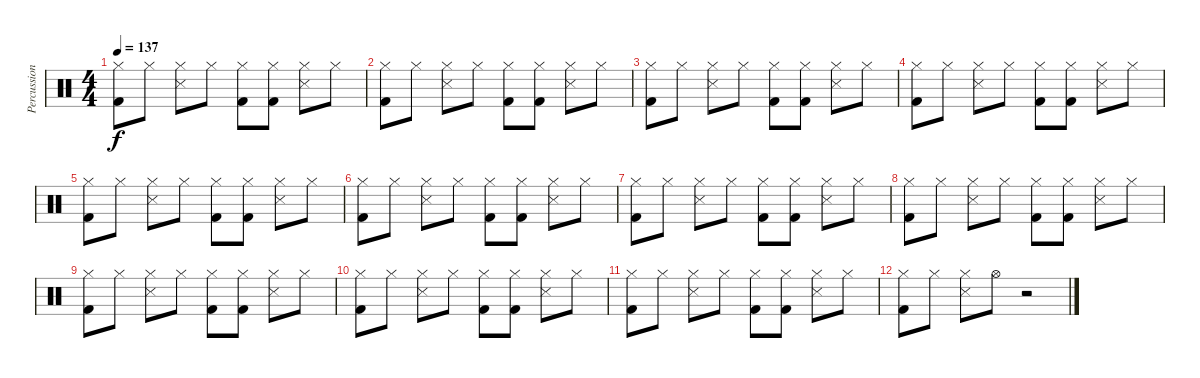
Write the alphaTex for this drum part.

\track ("Percussions" "Percussion") {instrument percussion}
\staff {score}
\articulation defaults
\ts (4 4)
\tempo 137
\clef neutral
\ks c
("Hi-Hat (closed)" "Kick (hit) 2").8{dy f} "Hi-Hat (closed)".8 ("Hi-Hat (closed)" "Snare (side stick) 3").8 "Hi-Hat (closed)".8 ("Hi-Hat (closed)" "Kick (hit) 2").8 ("Hi-Hat (closed)" "Kick (hit) 2").8 ("Hi-Hat (closed)" "Snare (side stick) 3").8 "Hi-Hat (closed)".8 |
("Hi-Hat (closed)" "Kick (hit) 2").8 "Hi-Hat (closed)".8 ("Hi-Hat (closed)" "Snare (side stick) 3").8 "Hi-Hat (closed)".8 ("Hi-Hat (closed)" "Kick (hit) 2").8 ("Hi-Hat (closed)" "Kick (hit) 2").8 ("Hi-Hat (closed)" "Snare (side stick) 3").8 "Hi-Hat (closed)".8 |
("Hi-Hat (closed)" "Kick (hit) 2").8 "Hi-Hat (closed)".8 ("Hi-Hat (closed)" "Snare (side stick) 3").8 "Hi-Hat (closed)".8 ("Hi-Hat (closed)" "Kick (hit) 2").8 ("Hi-Hat (closed)" "Kick (hit) 2").8 ("Hi-Hat (closed)" "Snare (side stick) 3").8 "Hi-Hat (closed)".8 |
("Hi-Hat (closed)" "Kick (hit) 2").8 "Hi-Hat (closed)".8 ("Hi-Hat (closed)" "Snare (side stick) 3").8 "Hi-Hat (closed)".8 ("Hi-Hat (closed)" "Kick (hit) 2").8 ("Hi-Hat (closed)" "Kick (hit) 2").8 ("Hi-Hat (closed)" "Snare (side stick) 3").8 "Hi-Hat (closed)".8 |
("Hi-Hat (closed)" "Kick (hit) 2").8 "Hi-Hat (closed)".8 ("Hi-Hat (closed)" "Snare (side stick) 3").8 "Hi-Hat (closed)".8 ("Hi-Hat (closed)" "Kick (hit) 2").8 ("Hi-Hat (closed)" "Kick (hit) 2").8 ("Hi-Hat (closed)" "Snare (side stick) 3").8 "Hi-Hat (closed)".8 |
("Hi-Hat (closed)" "Kick (hit) 2").8 "Hi-Hat (closed)".8 ("Hi-Hat (closed)" "Snare (side stick) 3").8 "Hi-Hat (closed)".8 ("Hi-Hat (closed)" "Kick (hit) 2").8 ("Hi-Hat (closed)" "Kick (hit) 2").8 ("Hi-Hat (closed)" "Snare (side stick) 3").8 "Hi-Hat (closed)".8 |
("Hi-Hat (closed)" "Kick (hit) 2").8 "Hi-Hat (closed)".8 ("Hi-Hat (closed)" "Snare (side stick) 3").8 "Hi-Hat (closed)".8 ("Hi-Hat (closed)" "Kick (hit) 2").8 ("Hi-Hat (closed)" "Kick (hit) 2").8 ("Hi-Hat (closed)" "Snare (side stick) 3").8 "Hi-Hat (closed)".8 |
("Hi-Hat (closed)" "Kick (hit) 2").8 "Hi-Hat (closed)".8 ("Hi-Hat (closed)" "Snare (side stick) 3").8 "Hi-Hat (closed)".8 ("Hi-Hat (closed)" "Kick (hit) 2").8 ("Hi-Hat (closed)" "Kick (hit) 2").8 ("Hi-Hat (closed)" "Snare (side stick) 3").8 "Hi-Hat (closed)".8 |
("Hi-Hat (closed)" "Kick (hit) 2").8 "Hi-Hat (closed)".8 ("Hi-Hat (closed)" "Snare (side stick) 3").8 "Hi-Hat (closed)".8 ("Hi-Hat (closed)" "Kick (hit) 2").8 ("Hi-Hat (closed)" "Kick (hit) 2").8 ("Hi-Hat (closed)" "Snare (side stick) 3").8 "Hi-Hat (closed)".8 |
("Hi-Hat (closed)" "Kick (hit) 2").8 "Hi-Hat (closed)".8 ("Hi-Hat (closed)" "Snare (side stick) 3").8 "Hi-Hat (closed)".8 ("Hi-Hat (closed)" "Kick (hit) 2").8 ("Hi-Hat (closed)" "Kick (hit) 2").8 ("Hi-Hat (closed)" "Snare (side stick) 3").8 "Hi-Hat (closed)".8 |
("Hi-Hat (closed)" "Kick (hit) 2").8 "Hi-Hat (closed)".8 ("Hi-Hat (closed)" "Snare (side stick) 3").8 "Hi-Hat (closed)".8 ("Hi-Hat (closed)" "Kick (hit) 2").8 ("Hi-Hat (closed)" "Kick (hit) 2").8 ("Hi-Hat (closed)" "Snare (side stick) 3").8 "Hi-Hat (closed)".8 |
("Hi-Hat (closed)" "Kick (hit) 2").8 "Hi-Hat (closed)".8 ("Hi-Hat (closed)" "Snare (side stick) 3").8 "Hi-Hat (open)".8 r.2
